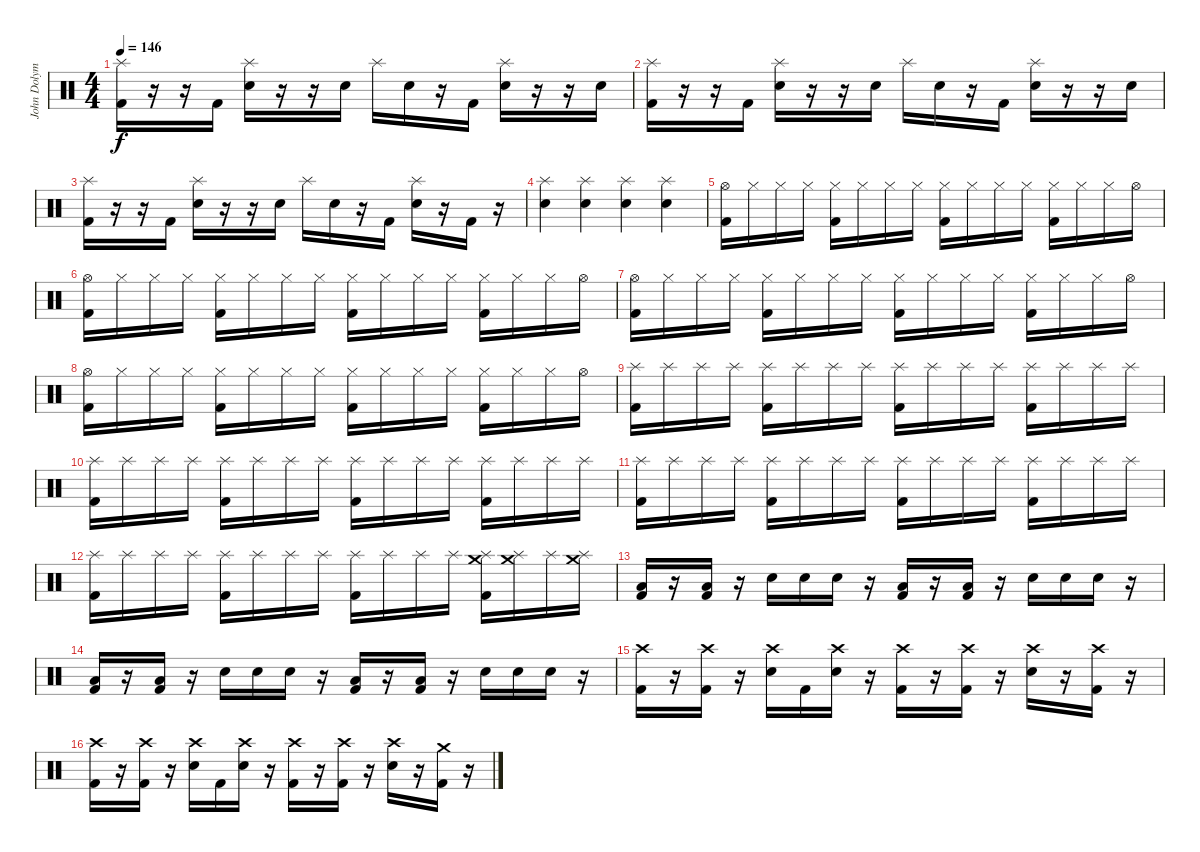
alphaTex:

\track ("John Dolyman" "John Dolym") {instrument percussion}
\staff {score}
\articulation defaults
\ts (4 4)
\tempo 146
\clef neutral
\ks c
("Splash (hit)" "Kick (hit) 2").16{dy f} r.16 r.16 "Kick (hit) 2".16 ("Splash (hit)" "Electric Snare (hit)").16 r.16 r.16 "Electric Snare (hit)".16 "Splash (hit)".16 "Electric Snare (hit)".16 r.16 "Kick (hit) 2".16 ("Splash (hit)" "Electric Snare (hit)").16 r.16 r.16 "Electric Snare (hit)".16 |
("Splash (hit)" "Kick (hit) 2").16 r.16 r.16 "Kick (hit) 2".16 ("Splash (hit)" "Electric Snare (hit)").16 r.16 r.16 "Electric Snare (hit)".16 "Splash (hit)".16 "Electric Snare (hit)".16 r.16 "Kick (hit) 2".16 ("Splash (hit)" "Electric Snare (hit)").16 r.16 r.16 "Electric Snare (hit)".16 |
("Splash (hit)" "Kick (hit) 2").16 r.16 r.16 "Kick (hit) 2".16 ("Splash (hit)" "Electric Snare (hit)").16 r.16 r.16 "Electric Snare (hit)".16 "Splash (hit)".16 "Electric Snare (hit)".16 r.16 "Kick (hit) 2".16 ("Splash (hit)" "Electric Snare (hit)").16 r.16 "Kick (hit) 2".16 r.16 |
("Splash (hit)" "Electric Snare (hit)").4 ("Splash (hit)" "Electric Snare (hit)").4 ("Splash (hit)" "Electric Snare (hit)").4 ("Splash (hit)" "Electric Snare (hit)").4 |
("Hi-Hat (open)" "Kick (hit) 2").16 "Hi-Hat (closed)".16 "Hi-Hat (closed)".16 "Hi-Hat (closed)".16 ("Hi-Hat (closed)" "Kick (hit) 2").16 "Hi-Hat (closed)".16 "Hi-Hat (closed)".16 "Hi-Hat (closed)".16 ("Hi-Hat (closed)" "Kick (hit) 2").16 "Hi-Hat (closed)".16 "Hi-Hat (closed)".16 "Hi-Hat (closed)".16 ("Hi-Hat (closed)" "Kick (hit) 2").16 "Hi-Hat (closed)".16 "Hi-Hat (closed)".16 "Hi-Hat (open)".16 |
("Hi-Hat (open)" "Kick (hit) 2").16 "Hi-Hat (closed)".16 "Hi-Hat (closed)".16 "Hi-Hat (closed)".16 ("Hi-Hat (closed)" "Kick (hit) 2").16 "Hi-Hat (closed)".16 "Hi-Hat (closed)".16 "Hi-Hat (closed)".16 ("Hi-Hat (closed)" "Kick (hit) 2").16 "Hi-Hat (closed)".16 "Hi-Hat (closed)".16 "Hi-Hat (closed)".16 ("Hi-Hat (closed)" "Kick (hit) 2").16 "Hi-Hat (closed)".16 "Hi-Hat (closed)".16 "Hi-Hat (open)".16 |
("Hi-Hat (open)" "Kick (hit) 2").16 "Hi-Hat (closed)".16 "Hi-Hat (closed)".16 "Hi-Hat (closed)".16 ("Hi-Hat (closed)" "Kick (hit) 2").16 "Hi-Hat (closed)".16 "Hi-Hat (closed)".16 "Hi-Hat (closed)".16 ("Hi-Hat (closed)" "Kick (hit) 2").16 "Hi-Hat (closed)".16 "Hi-Hat (closed)".16 "Hi-Hat (closed)".16 ("Hi-Hat (closed)" "Kick (hit) 2").16 "Hi-Hat (closed)".16 "Hi-Hat (closed)".16 "Hi-Hat (open)".16 |
("Hi-Hat (open)" "Kick (hit) 2").16 "Hi-Hat (closed)".16 "Hi-Hat (closed)".16 "Hi-Hat (closed)".16 ("Hi-Hat (closed)" "Kick (hit) 2").16 "Hi-Hat (closed)".16 "Hi-Hat (closed)".16 "Hi-Hat (closed)".16 ("Hi-Hat (closed)" "Kick (hit) 2").16 "Hi-Hat (closed)".16 "Hi-Hat (closed)".16 "Hi-Hat (closed)".16 ("Hi-Hat (closed)" "Kick (hit) 2").16 "Hi-Hat (closed)".16 "Hi-Hat (closed)".16 "Hi-Hat (open)".16 |
("Splash (hit)" "Kick (hit) 2").16 "Splash (hit)".16 "Splash (hit)".16 "Splash (hit)".16 ("Splash (hit)" "Kick (hit) 2").16 "Splash (hit)".16 "Splash (hit)".16 "Splash (hit)".16 ("Splash (hit)" "Kick (hit) 2").16 "Splash (hit)".16 "Splash (hit)".16 "Splash (hit)".16 ("Splash (hit)" "Kick (hit) 2").16 "Splash (hit)".16 "Splash (hit)".16 "Splash (hit)".16 |
("Splash (hit)" "Kick (hit) 2").16 "Splash (hit)".16 "Splash (hit)".16 "Splash (hit)".16 ("Splash (hit)" "Kick (hit) 2").16 "Splash (hit)".16 "Splash (hit)".16 "Splash (hit)".16 ("Splash (hit)" "Kick (hit) 2").16 "Splash (hit)".16 "Splash (hit)".16 "Splash (hit)".16 ("Splash (hit)" "Kick (hit) 2").16 "Splash (hit)".16 "Splash (hit)".16 "Splash (hit)".16 |
("Splash (hit)" "Kick (hit) 2").16 "Splash (hit)".16 "Splash (hit)".16 "Splash (hit)".16 ("Splash (hit)" "Kick (hit) 2").16 "Splash (hit)".16 "Splash (hit)".16 "Splash (hit)".16 ("Splash (hit)" "Kick (hit) 2").16 "Splash (hit)".16 "Splash (hit)".16 "Splash (hit)".16 ("Splash (hit)" "Kick (hit) 2").16 "Splash (hit)".16 "Splash (hit)".16 "Splash (hit)".16 |
("Splash (hit)" "Kick (hit) 2").16 "Splash (hit)".16 "Splash (hit)".16 "Splash (hit)".16 ("Splash (hit)" "Kick (hit) 2").16 "Splash (hit)".16 "Splash (hit)".16 "Splash (hit)".16 ("Splash (hit)" "Kick (hit) 2").16 "Splash (hit)".16 "Splash (hit)".16 "Splash (hit)".16 ("Splash (hit)" "Crash medium (hit)" "Kick (hit) 2").16 ("Splash (hit)" "Crash medium (hit)").16 "Splash (hit)".16 ("Splash (hit)" "Crash medium (hit)").16 |
("Low Floor Tom (hit)" "Kick (hit) 2").16 r.16 ("Low Floor Tom (hit)" "Kick (hit) 2").16 r.16 "Electric Snare (hit)".16 "Electric Snare (hit)".16 "Electric Snare (hit)".16 r.16 ("Low Floor Tom (hit)" "Kick (hit) 2").16 r.16 ("Low Floor Tom (hit)" "Kick (hit) 2").16 r.16 "Electric Snare (hit)".16 "Electric Snare (hit)".16 "Electric Snare (hit)".16 r.16 |
("Low Floor Tom (hit)" "Kick (hit) 2").16 r.16 ("Low Floor Tom (hit)" "Kick (hit) 2").16 r.16 "Electric Snare (hit)".16 "Electric Snare (hit)".16 "Electric Snare (hit)".16 r.16 ("Low Floor Tom (hit)" "Kick (hit) 2").16 r.16 ("Low Floor Tom (hit)" "Kick (hit) 2").16 r.16 "Electric Snare (hit)".16 "Electric Snare (hit)".16 "Electric Snare (hit)".16 r.16 |
("Crash high (hit)" "Kick (hit) 2").16 r.16 ("Crash high (hit)" "Kick (hit) 2").16 r.16 ("Crash high (hit)" "Electric Snare (hit)").16 "Kick (hit) 2".16 ("Crash high (hit)" "Electric Snare (hit)").16 r.16 ("Crash high (hit)" "Kick (hit) 2").16 r.16 ("Crash high (hit)" "Kick (hit) 2").16 r.16 ("Crash high (hit)" "Electric Snare (hit)").16 r.16 ("Crash high (hit)" "Kick (hit) 2").16 r.16 |
("Crash high (hit)" "Kick (hit) 2").16 r.16 ("Crash high (hit)" "Kick (hit) 2").16 r.16 ("Crash high (hit)" "Electric Snare (hit)").16 "Kick (hit) 2".16 ("Crash high (hit)" "Electric Snare (hit)").16 r.16 ("Crash high (hit)" "Kick (hit) 2").16 r.16 ("Crash high (hit)" "Kick (hit) 2").16 r.16 ("Crash high (hit)" "Electric Snare (hit)").16 r.16 ("Crash medium (hit)" "Kick (hit) 2").16 r.16
